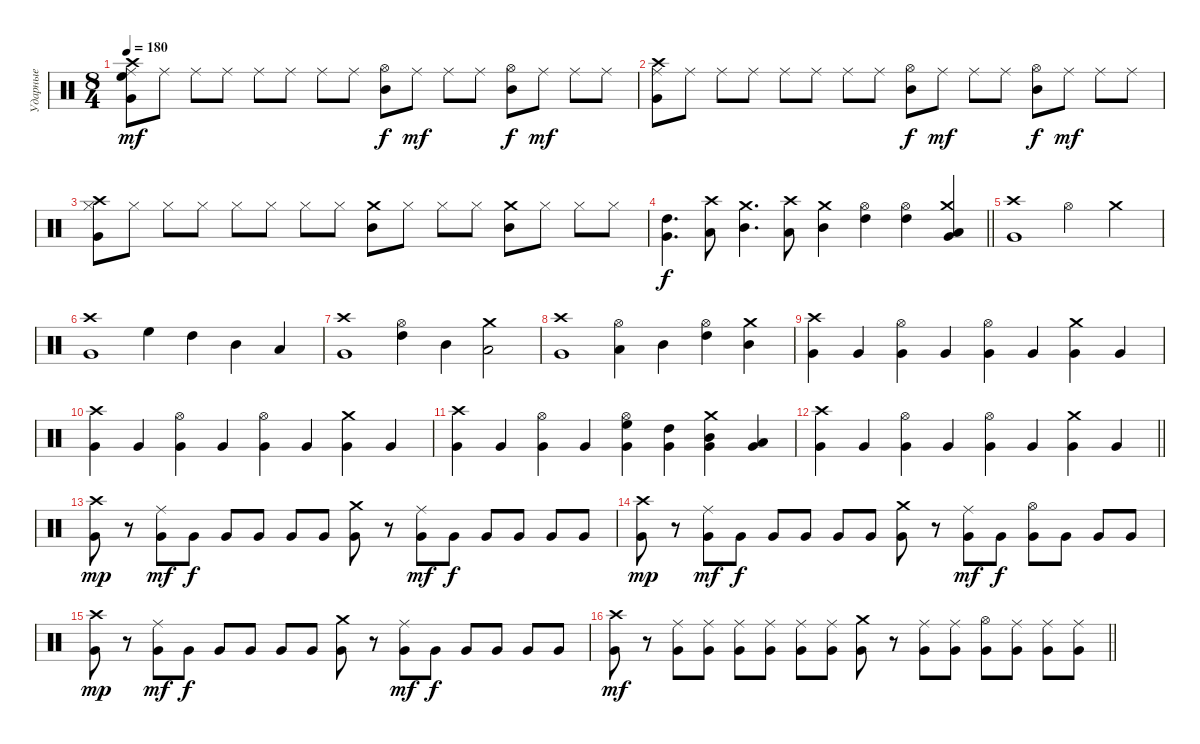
\track ("Ударные" "Ударные") {instrument percussion}
\staff {score}
\articulation defaults
\ts (8 4)
\tempo 180
\clef neutral
\ks c
("High Floor Tom (hit)" "Ride (middle)" "Crash high (hit)" "Very Low Tom (hit)").8{dy mf} "Ride (middle)".8 "Ride (middle)".8 "Ride (middle)".8 "Ride (middle)".8 "Ride (middle)".8 "Ride (middle)".8 "Ride (middle)".8 ("Hi-Hat (open)" "Mid Tom (hit)").8{dy f} "Ride (middle)".8{dy mf} "Ride (middle)".8 "Ride (middle)".8 ("Hi-Hat (open)" "Mid Tom (hit)").8{dy f} "Ride (middle)".8{dy mf} "Ride (middle)".8 "Ride (middle)".8 |
("Ride (middle)" "Crash high (hit)" "Very Low Tom (hit)").8 "Ride (middle)".8 "Ride (middle)".8 "Ride (middle)".8 "Ride (middle)".8 "Ride (middle)".8 "Ride (middle)".8 "Ride (middle)".8 ("Hi-Hat (open)" "Mid Tom (hit)").8{dy f} "Ride (middle)".8{dy mf} "Ride (middle)".8 "Ride (middle)".8 ("Hi-Hat (open)" "Mid Tom (hit)").8{dy f} "Ride (middle)".8{dy mf} "Ride (middle)".8 "Ride (middle)".8 |
("Hi-Hat (closed)" "Crash high (hit)" "Very Low Tom (hit)").8 "Hi-Hat (closed)".8 "Hi-Hat (closed)".8 "Hi-Hat (closed)".8 "Hi-Hat (closed)".8 "Hi-Hat (closed)".8 "Hi-Hat (closed)".8 "Hi-Hat (closed)".8 ("Crash medium (hit)" "Mid Tom (hit)").8 "Hi-Hat (closed)".8 "Hi-Hat (closed)".8 "Hi-Hat (closed)".8 ("Crash medium (hit)" "Mid Tom (hit)").8 "Hi-Hat (closed)".8 "Hi-Hat (closed)".8 "Hi-Hat (closed)".8 |
\barLineRight lightlight
("High Tom (hit)" "Very Low Tom (hit)").4{d dy f} ("Crash high (hit)" "Low Tom (hit)").8 ("Crash medium (hit)" "Mid Tom (hit)").4{d} ("Crash high (hit)" "Low Tom (hit)").8 ("Crash medium (hit)" "Mid Tom (hit)").4 ("Hi-Hat (open)" "High Tom (hit)").4 ("Hi-Hat (open)" "High Tom (hit)").4 ("Crash medium (hit)" "Low Tom (hit)" "Very Low Tom (hit)").4 |
\section ("" "")
("Crash high (hit)" "Very Low Tom (hit)").1 "Hi-Hat (open)".2 "Crash medium (hit)".2 |
("Crash high (hit)" "Very Low Tom (hit)").1 "High Floor Tom (hit)".4 "High Tom (hit)".4 "Mid Tom (hit)".4 "Low Tom (hit)".4 |
("Crash high (hit)" "Very Low Tom (hit)").1 ("Hi-Hat (open)" "High Tom (hit)").4 "Mid Tom (hit)".4 ("Crash medium (hit)" "Low Tom (hit)").2 |
("Crash high (hit)" "Very Low Tom (hit)").1 ("Hi-Hat (open)" "Low Tom (hit)").4 "Mid Tom (hit)".4 ("Hi-Hat (open)" "High Tom (hit)").4 ("Crash medium (hit)" "Mid Tom (hit)").4 |
("Crash high (hit)" "Very Low Tom (hit)").4 "Very Low Tom (hit)".4 ("Hi-Hat (open)" "Very Low Tom (hit)").4 "Very Low Tom (hit)".4 ("Hi-Hat (open)" "Very Low Tom (hit)").4 "Very Low Tom (hit)".4 ("Crash medium (hit)" "Very Low Tom (hit)").4 "Very Low Tom (hit)".4 |
("Crash high (hit)" "Very Low Tom (hit)").4 "Very Low Tom (hit)".4 ("Hi-Hat (open)" "Very Low Tom (hit)").4 "Very Low Tom (hit)".4 ("Hi-Hat (open)" "Very Low Tom (hit)").4 "Very Low Tom (hit)".4 ("Crash medium (hit)" "Very Low Tom (hit)").4 "Very Low Tom (hit)".4 |
("Crash high (hit)" "Very Low Tom (hit)").4 "Very Low Tom (hit)".4 ("Hi-Hat (open)" "Very Low Tom (hit)").4 "Very Low Tom (hit)".4 ("Hi-Hat (open)" "High Floor Tom (hit)" "Very Low Tom (hit)").4 ("High Tom (hit)" "Very Low Tom (hit)").4 ("Crash medium (hit)" "Mid Tom (hit)" "Very Low Tom (hit)").4 ("Low Tom (hit)" "Very Low Tom (hit)").4 |
\barLineRight lightlight
("Crash high (hit)" "Very Low Tom (hit)").4 "Very Low Tom (hit)".4 ("Hi-Hat (open)" "Very Low Tom (hit)").4 "Very Low Tom (hit)".4 ("Hi-Hat (open)" "Very Low Tom (hit)").4 "Very Low Tom (hit)".4 ("Crash medium (hit)" "Very Low Tom (hit)").4 "Very Low Tom (hit)".4 |
("Crash high (hit)" "Very Low Tom (hit)").8{dy mp} r.8 ("Ride (middle)" "Very Low Tom (hit)").8{dy mf} "Very Low Tom (hit)".8{dy f} "Very Low Tom (hit)".8 "Very Low Tom (hit)".8 "Very Low Tom (hit)".8 "Very Low Tom (hit)".8 ("Crash medium (hit)" "Very Low Tom (hit)").8 r.8 ("Ride (middle)" "Very Low Tom (hit)").8{dy mf} "Very Low Tom (hit)".8{dy f} "Very Low Tom (hit)".8 "Very Low Tom (hit)".8 "Very Low Tom (hit)".8 "Very Low Tom (hit)".8 |
("Crash high (hit)" "Very Low Tom (hit)").8{dy mp} r.8 ("Ride (middle)" "Very Low Tom (hit)").8{dy mf} "Very Low Tom (hit)".8{dy f} "Very Low Tom (hit)".8 "Very Low Tom (hit)".8 "Very Low Tom (hit)".8 "Very Low Tom (hit)".8 ("Crash medium (hit)" "Very Low Tom (hit)").8 r.8 ("Ride (middle)" "Very Low Tom (hit)").8{dy mf} "Very Low Tom (hit)".8{dy f} ("Hi-Hat (open)" "Very Low Tom (hit)").8 "Very Low Tom (hit)".8 "Very Low Tom (hit)".8 "Very Low Tom (hit)".8 |
("Crash high (hit)" "Very Low Tom (hit)").8{dy mp} r.8 ("Ride (middle)" "Very Low Tom (hit)").8{dy mf} "Very Low Tom (hit)".8{dy f} "Very Low Tom (hit)".8 "Very Low Tom (hit)".8 "Very Low Tom (hit)".8 "Very Low Tom (hit)".8 ("Crash medium (hit)" "Very Low Tom (hit)").8 r.8 ("Ride (middle)" "Very Low Tom (hit)").8{dy mf} "Very Low Tom (hit)".8{dy f} "Very Low Tom (hit)".8 "Very Low Tom (hit)".8 "Very Low Tom (hit)".8 "Very Low Tom (hit)".8 |
\barLineRight lightlight
("Crash high (hit)" "Very Low Tom (hit)").8{dy mf} r.8 ("Ride (middle)" "Very Low Tom (hit)").8 ("Ride (middle)" "Very Low Tom (hit)").8 ("Ride (middle)" "Very Low Tom (hit)").8 ("Ride (middle)" "Very Low Tom (hit)").8 ("Ride (middle)" "Very Low Tom (hit)").8 ("Ride (middle)" "Very Low Tom (hit)").8 ("Crash medium (hit)" "Very Low Tom (hit)").8 r.8 ("Ride (middle)" "Very Low Tom (hit)").8 ("Ride (middle)" "Very Low Tom (hit)").8 ("Hi-Hat (open)" "Very Low Tom (hit)").8 ("Ride (middle)" "Very Low Tom (hit)").8 ("Ride (middle)" "Very Low Tom (hit)").8 ("Ride (middle)" "Very Low Tom (hit)").8
